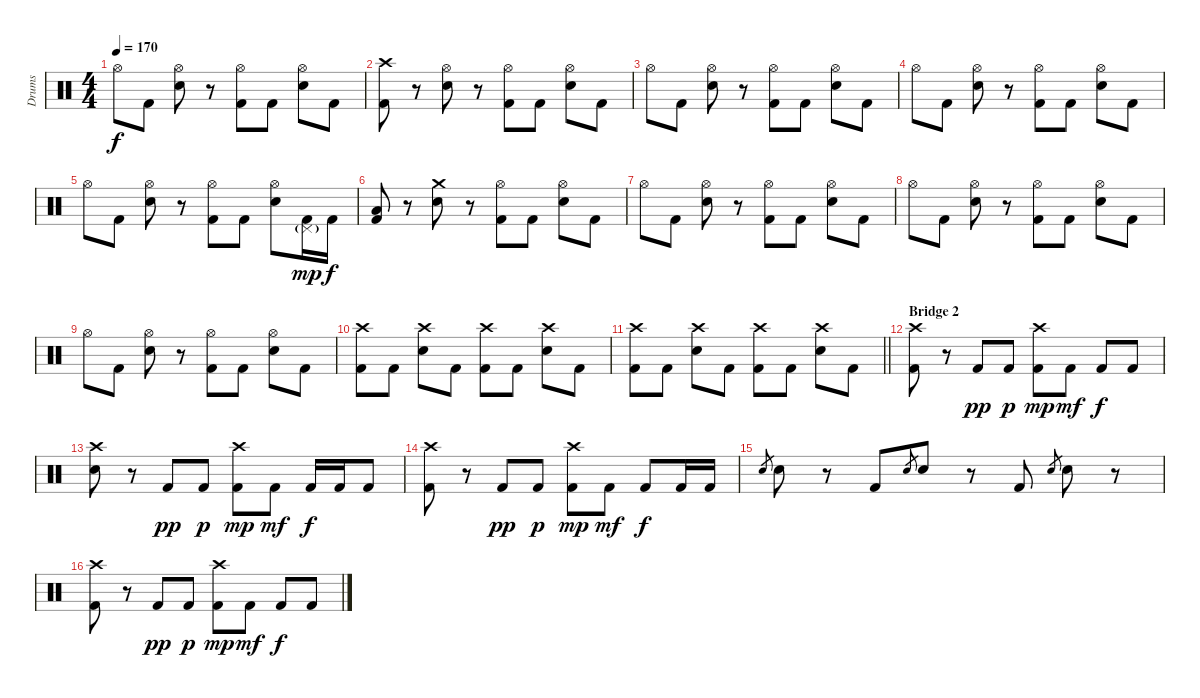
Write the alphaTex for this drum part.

\track ("Drums" "Drums") {instrument percussion}
\staff {score}
\articulation defaults
\ts (4 4)
\tempo 170
\clef neutral
\ks c "Hi-Hat (open)".8{dy f} "Kick (hit) 2".8
("Hi-Hat (open)" "Electric Snare (hit)").8 r.8 ("Hi-Hat (open)" "Kick (hit) 2").8 "Kick (hit) 2".8 ("Hi-Hat (open)" "Electric Snare (hit)").8 "Kick (hit) 2".8 |
("Crash high (hit)" "Kick (hit) 2").8 r.8 ("Hi-Hat (open)" "Electric Snare (hit)").8 r.8 ("Hi-Hat (open)" "Kick (hit) 2").8 "Kick (hit) 2".8 ("Hi-Hat (open)" "Electric Snare (hit)").8 "Kick (hit) 2".8 |
"Hi-Hat (open)".8 "Kick (hit) 2".8 ("Hi-Hat (open)" "Electric Snare (hit)").8 r.8 ("Hi-Hat (open)" "Kick (hit) 2").8 "Kick (hit) 2".8 ("Hi-Hat (open)" "Electric Snare (hit)").8 "Kick (hit) 2".8 |
"Hi-Hat (open)".8 "Kick (hit) 2".8 ("Hi-Hat (open)" "Electric Snare (hit)").8 r.8 ("Hi-Hat (open)" "Kick (hit) 2").8 "Kick (hit) 2".8 ("Hi-Hat (open)" "Electric Snare (hit)").8 "Kick (hit) 2".8 |
"Hi-Hat (open)".8 "Kick (hit) 2".8 ("Hi-Hat (open)" "Electric Snare (hit)").8 r.8 ("Hi-Hat (open)" "Kick (hit) 2").8 "Kick (hit) 2".8 ("Hi-Hat (open)" "Electric Snare (hit)").8 ("Pedal Hi-Hat (hit)"{g} "Kick (hit) 2").16{dy mp} "Kick (hit) 2".16{dy f} |
("Low Floor Tom (hit)" "Kick (hit) 2").8 r.8 ("Crash medium (hit)" "Electric Snare (hit)").8 r.8 ("Hi-Hat (open)" "Kick (hit) 2").8 "Kick (hit) 2".8 ("Hi-Hat (open)" "Electric Snare (hit)").8 "Kick (hit) 2".8 |
"Hi-Hat (open)".8 "Kick (hit) 2".8 ("Hi-Hat (open)" "Electric Snare (hit)").8 r.8 ("Hi-Hat (open)" "Kick (hit) 2").8 "Kick (hit) 2".8 ("Hi-Hat (open)" "Electric Snare (hit)").8 "Kick (hit) 2".8 |
"Hi-Hat (open)".8 "Kick (hit) 2".8 ("Hi-Hat (open)" "Electric Snare (hit)").8 r.8 ("Hi-Hat (open)" "Kick (hit) 2").8 "Kick (hit) 2".8 ("Hi-Hat (open)" "Electric Snare (hit)").8 "Kick (hit) 2".8 |
"Hi-Hat (open)".8 "Kick (hit) 2".8 ("Hi-Hat (open)" "Electric Snare (hit)").8 r.8 ("Hi-Hat (open)" "Kick (hit) 2").8 "Kick (hit) 2".8 ("Hi-Hat (open)" "Electric Snare (hit)").8 "Kick (hit) 2".8 |
("Crash high (hit)" "Kick (hit) 2").8 "Kick (hit) 2".8 ("Crash high (hit)" "Electric Snare (hit)").8 "Kick (hit) 2".8 ("Crash high (hit)" "Kick (hit) 2").8 "Kick (hit) 2".8 ("Crash high (hit)" "Electric Snare (hit)").8 "Kick (hit) 2".8 |
\barLineRight lightlight
("Crash high (hit)" "Kick (hit) 2").8 "Kick (hit) 2".8 ("Crash high (hit)" "Electric Snare (hit)").8 "Kick (hit) 2".8 ("Crash high (hit)" "Kick (hit) 2").8 "Kick (hit) 2".8 ("Crash high (hit)" "Electric Snare (hit)").8 "Kick (hit) 2".8 |
\section ("" "Bridge 2")
("Crash high (hit)" "Kick (hit) 2").8 r.8 "Kick (hit) 2".8{dy pp} "Kick (hit) 2".8{dy p} ("Crash high (hit)" "Kick (hit) 2").8{dy mp} "Kick (hit) 2".8{dy mf} "Kick (hit) 2".8{dy f} "Kick (hit) 2".8 |
("Crash high (hit)" "Electric Snare (hit)").8 r.8 "Kick (hit) 2".8{dy pp} "Kick (hit) 2".8{dy p} ("Crash high (hit)" "Kick (hit) 2").8{dy mp} "Kick (hit) 2".8{dy mf} "Kick (hit) 2".16{dy f} "Kick (hit) 2".16 "Kick (hit) 2".8 |
("Crash high (hit)" "Kick (hit) 2").8 r.8 "Kick (hit) 2".8{dy pp} "Kick (hit) 2".8{dy p} ("Crash high (hit)" "Kick (hit) 2").8{dy mp} "Kick (hit) 2".8{dy mf} "Kick (hit) 2".8{dy f} "Kick (hit) 2".16 "Kick (hit) 2".16 |
"Electric Snare (hit)".8{gr} "Electric Snare (hit)".8 r.8 "Kick (hit) 2".8 "Electric Snare (hit)".8{gr} "Electric Snare (hit)".8 r.8 "Kick (hit) 2".8 "Electric Snare (hit)".8{gr} "Electric Snare (hit)".8 r.8 |
("Crash high (hit)" "Kick (hit) 2").8 r.8 "Kick (hit) 2".8{dy pp} "Kick (hit) 2".8{dy p} ("Crash high (hit)" "Kick (hit) 2").8{dy mp} "Kick (hit) 2".8{dy mf} "Kick (hit) 2".8{dy f} "Kick (hit) 2".8
